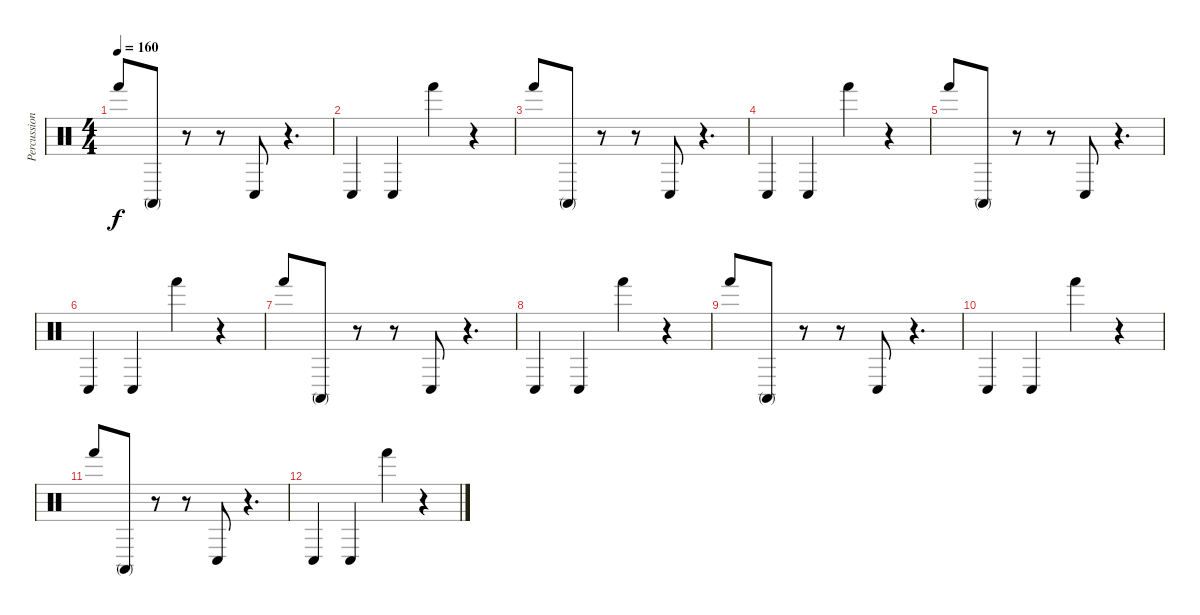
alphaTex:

\track ("Percussion" "Percussion") {instrument percussion}
\staff {score}
\articulation defaults
\ts (4 4)
\tempo 160
\clef neutral
\ks c "Hand (hit)".8{dy f} "Conga high (mute)".8
r.8 r.8 "Conga low (hit)".8 r.4{d} |
"Conga low (hit)".4 "Conga low (hit)".4 "Hand (hit)".4 r.4 |
"Hand (hit)".8 "Conga high (mute)".8 r.8 r.8 "Conga low (hit)".8 r.4{d} |
"Conga low (hit)".4 "Conga low (hit)".4 "Hand (hit)".4 r.4 |
"Hand (hit)".8 "Conga high (mute)".8 r.8 r.8 "Conga low (hit)".8 r.4{d} |
"Conga low (hit)".4 "Conga low (hit)".4 "Hand (hit)".4 r.4 |
"Hand (hit)".8 "Conga high (mute)".8 r.8 r.8 "Conga low (hit)".8 r.4{d} |
"Conga low (hit)".4 "Conga low (hit)".4 "Hand (hit)".4 r.4 |
"Hand (hit)".8{volume 13} "Conga high (mute)".8 r.8 r.8 "Conga low (hit)".8 r.4{d} |
"Conga low (hit)".4{volume 9} "Conga low (hit)".4 "Hand (hit)".4 r.4 |
"Hand (hit)".8 "Conga high (mute)".8{volume 5} r.8 r.8 "Conga low (hit)".8 r.4{d} |
"Conga low (hit)".4{volume 1} "Conga low (hit)".4 "Hand (hit)".4 r.4
